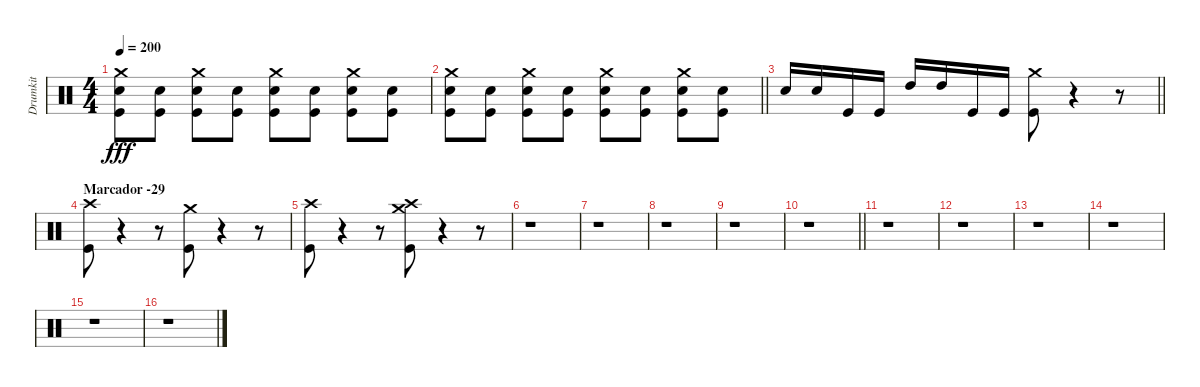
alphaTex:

\track ("Drumkit" "Drumkit") {instrument percussion}
\staff {score}
\articulation defaults
\ts (4 4)
\tempo 200
\clef neutral
\ks c
("Crash medium (hit)" "Snare (hit) 2" "Kick (hit)").8{dy fff} ("Snare (hit) 2" "Kick (hit)").8 ("Crash medium (hit)" "Snare (hit) 2" "Kick (hit)").8 ("Snare (hit) 2" "Kick (hit)").8 ("Crash medium (hit)" "Snare (hit) 2" "Kick (hit)").8 ("Snare (hit) 2" "Kick (hit)").8 ("Crash medium (hit)" "Snare (hit) 2" "Kick (hit)").8 ("Snare (hit) 2" "Kick (hit)").8 |
\barLineRight lightlight
("Crash medium (hit)" "Snare (hit) 2" "Kick (hit)").8 ("Snare (hit) 2" "Kick (hit)").8 ("Crash medium (hit)" "Snare (hit) 2" "Kick (hit)").8 ("Snare (hit) 2" "Kick (hit)").8 ("Crash medium (hit)" "Snare (hit) 2" "Kick (hit)").8 ("Snare (hit) 2" "Kick (hit)").8 ("Crash medium (hit)" "Snare (hit) 2" "Kick (hit)").8 ("Snare (hit) 2" "Kick (hit)").8 |
\barLineRight lightlight "Snare (hit) 2".16 "Snare (hit) 2".16 "Kick (hit)".16 "Kick (hit)".16 "High Tom (hit)".16 "High Tom (hit)".16 "Kick (hit)".16 "Kick (hit)".16
("Crash medium (hit)" "Kick (hit)").8 r.4 r.8 |
\section ("" "Marcador -29")
("Crash high (hit)" "Kick (hit)").8 r.4 r.8 ("Crash medium (hit)" "Kick (hit)").8 r.4 r.8 |
("Crash high (hit)" "Kick (hit)").8 r.4 r.8 ("Crash high (hit)" "Crash medium (hit)" "Kick (hit)").8 r.4 r.8 |
r.1 |
r.1 |
r.1 |
r.1 |
\barLineRight lightlight
r.1 |
r.1 |
r.1 |
r.1 |
r.1 |
r.1 |
r.1
